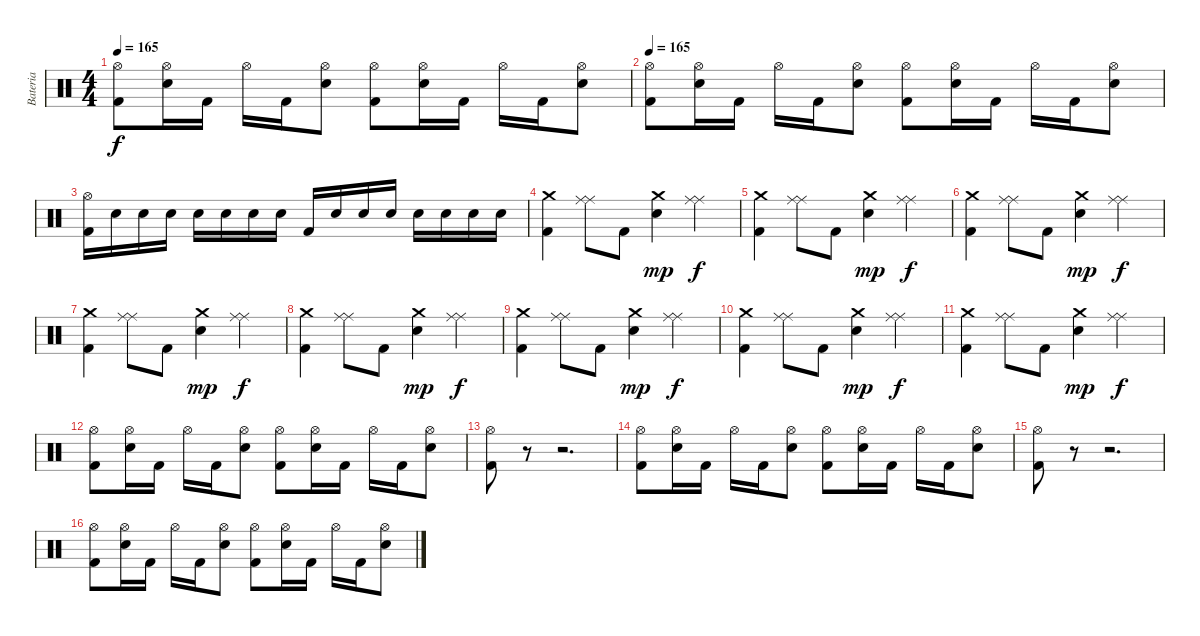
\track ("Bateria" "Bateria") {instrument percussion}
\staff {score}
\articulation defaults
\ts (4 4)
\tempo 165
\clef neutral
\ks c
("Hi-Hat (open)" "Kick (hit) 2").8{dy f} ("Hi-Hat (open)" "Electric Snare (hit)").16 "Kick (hit) 2".16 "Hi-Hat (open)".16 "Kick (hit) 2".16 ("Hi-Hat (open)" "Electric Snare (hit)").8 ("Hi-Hat (open)" "Kick (hit) 2").8 ("Hi-Hat (open)" "Electric Snare (hit)").16 "Kick (hit) 2".16 "Hi-Hat (open)".16 "Kick (hit) 2".16 ("Hi-Hat (open)" "Electric Snare (hit)").8 |
\tempo 165
("Hi-Hat (open)" "Kick (hit) 2").8 ("Hi-Hat (open)" "Electric Snare (hit)").16 "Kick (hit) 2".16 "Hi-Hat (open)".16 "Kick (hit) 2".16 ("Hi-Hat (open)" "Electric Snare (hit)").8 ("Hi-Hat (open)" "Kick (hit) 2").8 ("Hi-Hat (open)" "Electric Snare (hit)").16 "Kick (hit) 2".16 "Hi-Hat (open)".16 "Kick (hit) 2".16 ("Hi-Hat (open)" "Electric Snare (hit)").8 |
("Hi-Hat (open)" "Kick (hit) 2").16 "Electric Snare (hit)".16 "Electric Snare (hit)".16 "Electric Snare (hit)".16 "Electric Snare (hit)".16 "Electric Snare (hit)".16 "Electric Snare (hit)".16 "Electric Snare (hit)".16 "Kick (hit) 2".16 "Electric Snare (hit)".16 "Electric Snare (hit)".16 "Electric Snare (hit)".16 "Electric Snare (hit)".16 "Electric Snare (hit)".16 "Electric Snare (hit)".16 "Electric Snare (hit)".16 |
("Crash medium (hit)" "Kick (hit) 2").4 ("Ride (middle)" "Ride (middle)").8 "Kick (hit) 2".8 ("Crash medium (hit)" "Electric Snare (hit)").4{dy mp} ("Ride (middle)" "Ride (middle)").4{dy f} |
("Crash medium (hit)" "Kick (hit) 2").4 ("Ride (middle)" "Ride (middle)").8 "Kick (hit) 2".8 ("Crash medium (hit)" "Electric Snare (hit)").4{dy mp} ("Ride (middle)" "Ride (middle)").4{dy f} |
("Crash medium (hit)" "Kick (hit) 2").4 ("Ride (middle)" "Ride (middle)").8 "Kick (hit) 2".8 ("Crash medium (hit)" "Electric Snare (hit)").4{dy mp} ("Ride (middle)" "Ride (middle)").4{dy f} |
("Crash medium (hit)" "Kick (hit) 2").4 ("Ride (middle)" "Ride (middle)").8 "Kick (hit) 2".8 ("Crash medium (hit)" "Electric Snare (hit)").4{dy mp} ("Ride (middle)" "Ride (middle)").4{dy f} |
("Crash medium (hit)" "Kick (hit) 2").4 ("Ride (middle)" "Ride (middle)").8 "Kick (hit) 2".8 ("Crash medium (hit)" "Electric Snare (hit)").4{dy mp} ("Ride (middle)" "Ride (middle)").4{dy f} |
("Crash medium (hit)" "Kick (hit) 2").4 ("Ride (middle)" "Ride (middle)").8 "Kick (hit) 2".8 ("Crash medium (hit)" "Electric Snare (hit)").4{dy mp} ("Ride (middle)" "Ride (middle)").4{dy f} |
("Crash medium (hit)" "Kick (hit) 2").4 ("Ride (middle)" "Ride (middle)").8 "Kick (hit) 2".8 ("Crash medium (hit)" "Electric Snare (hit)").4{dy mp} ("Ride (middle)" "Ride (middle)").4{dy f} |
("Crash medium (hit)" "Kick (hit) 2").4 ("Ride (middle)" "Ride (middle)").8 "Kick (hit) 2".8 ("Crash medium (hit)" "Electric Snare (hit)").4{dy mp} ("Ride (middle)" "Ride (middle)").4{dy f} |
("Hi-Hat (open)" "Kick (hit) 2").8 ("Hi-Hat (open)" "Electric Snare (hit)").16 "Kick (hit) 2".16 "Hi-Hat (open)".16 "Kick (hit) 2".16 ("Hi-Hat (open)" "Electric Snare (hit)").8 ("Hi-Hat (open)" "Kick (hit) 2").8 ("Hi-Hat (open)" "Electric Snare (hit)").16 "Kick (hit) 2".16 "Hi-Hat (open)".16 "Kick (hit) 2".16 ("Hi-Hat (open)" "Electric Snare (hit)").8 |
("Hi-Hat (open)" "Kick (hit) 2").8 r.8 r.2{d} |
("Hi-Hat (open)" "Kick (hit) 2").8 ("Hi-Hat (open)" "Electric Snare (hit)").16 "Kick (hit) 2".16 "Hi-Hat (open)".16 "Kick (hit) 2".16 ("Hi-Hat (open)" "Electric Snare (hit)").8 ("Hi-Hat (open)" "Kick (hit) 2").8 ("Hi-Hat (open)" "Electric Snare (hit)").16 "Kick (hit) 2".16 "Hi-Hat (open)".16 "Kick (hit) 2".16 ("Hi-Hat (open)" "Electric Snare (hit)").8 |
("Hi-Hat (open)" "Kick (hit) 2").8 r.8 r.2{d} |
("Hi-Hat (open)" "Kick (hit) 2").8 ("Hi-Hat (open)" "Electric Snare (hit)").16 "Kick (hit) 2".16 "Hi-Hat (open)".16 "Kick (hit) 2".16 ("Hi-Hat (open)" "Electric Snare (hit)").8 ("Hi-Hat (open)" "Kick (hit) 2").8 ("Hi-Hat (open)" "Electric Snare (hit)").16 "Kick (hit) 2".16 "Hi-Hat (open)".16 "Kick (hit) 2".16 ("Hi-Hat (open)" "Electric Snare (hit)").8
